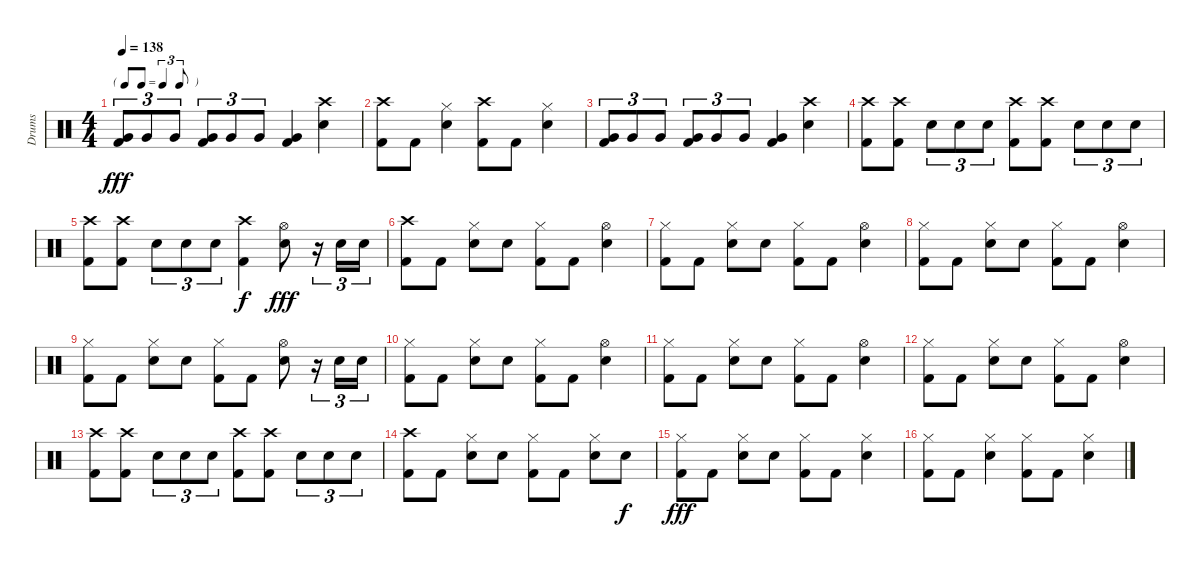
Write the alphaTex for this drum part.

\track ("Drums" "Drums") {instrument percussion}
\staff {score}
\articulation defaults
\ts (4 4)
\tf triplet8th
\tempo 138
\clef neutral
\ks c
("Very Low Tom (hit)" "Kick (hit) 2").8{tu (3 2) dy fff} "Very Low Tom (hit)".8{tu (3 2)} "Very Low Tom (hit)".8{tu (3 2)} ("Very Low Tom (hit)" "Kick (hit) 2").8{tu (3 2)} "Very Low Tom (hit)".8{tu (3 2)} "Very Low Tom (hit)".8{tu (3 2)} ("Very Low Tom (hit)" "Kick (hit) 2").4 ("Crash high (hit)" "Snare (hit) 2").4 |
("Crash high (hit)" "Kick (hit) 2").8 "Kick (hit) 2".8 ("Hi-Hat (closed)" "Snare (hit) 2").4 ("Crash high (hit)" "Kick (hit) 2").8 "Kick (hit) 2".8 ("Hi-Hat (closed)" "Snare (hit) 2").4 |
("Very Low Tom (hit)" "Kick (hit) 2").8{tu (3 2)} "Very Low Tom (hit)".8{tu (3 2)} "Very Low Tom (hit)".8{tu (3 2)} ("Very Low Tom (hit)" "Kick (hit) 2").8{tu (3 2)} "Very Low Tom (hit)".8{tu (3 2)} "Very Low Tom (hit)".8{tu (3 2)} ("Very Low Tom (hit)" "Kick (hit) 2").4 ("Crash high (hit)" "Snare (hit) 2").4 |
("Crash high (hit)" "Kick (hit) 2").8 ("Crash high (hit)" "Kick (hit) 2").8 "Snare (hit) 2".8{tu (3 2)} "Snare (hit) 2".8{tu (3 2)} "Snare (hit) 2".8{tu (3 2)} ("Crash high (hit)" "Kick (hit) 2").8 ("Crash high (hit)" "Kick (hit) 2").8 "Snare (hit) 2".8{tu (3 2)} "Snare (hit) 2".8{tu (3 2)} "Snare (hit) 2".8{tu (3 2)} |
("Crash high (hit)" "Kick (hit) 2").8 ("Crash high (hit)" "Kick (hit) 2").8 "Snare (hit) 2".8{tu (3 2)} "Snare (hit) 2".8{tu (3 2)} "Snare (hit) 2".8{tu (3 2)} ("Crash high (hit)" "Kick (hit) 2").4{dy f} ("Hi-Hat (open)" "Snare (hit) 2").8{dy fff} r.16{tu (3 2)} "Snare (hit) 2".16{tu (3 2)} "Snare (hit) 2".16{tu (3 2)} |
("Crash high (hit)" "Kick (hit) 2").8 "Kick (hit) 2".8 ("Hi-Hat (closed)" "Snare (hit) 2").8 "Snare (hit) 2".8 ("Hi-Hat (closed)" "Kick (hit) 2").8 "Kick (hit) 2".8 ("Hi-Hat (open)" "Snare (hit) 2").4 |
("Hi-Hat (closed)" "Kick (hit) 2").8 "Kick (hit) 2".8 ("Hi-Hat (closed)" "Snare (hit) 2").8 "Snare (hit) 2".8 ("Hi-Hat (closed)" "Kick (hit) 2").8 "Kick (hit) 2".8 ("Hi-Hat (open)" "Snare (hit) 2").4 |
("Hi-Hat (closed)" "Kick (hit) 2").8 "Kick (hit) 2".8 ("Hi-Hat (closed)" "Snare (hit) 2").8 "Snare (hit) 2".8 ("Hi-Hat (closed)" "Kick (hit) 2").8 "Kick (hit) 2".8 ("Hi-Hat (open)" "Snare (hit) 2").4 |
("Hi-Hat (closed)" "Kick (hit) 2").8 "Kick (hit) 2".8 ("Hi-Hat (closed)" "Snare (hit) 2").8 "Snare (hit) 2".8 ("Hi-Hat (closed)" "Kick (hit) 2").8 "Kick (hit) 2".8 ("Hi-Hat (open)" "Snare (hit) 2").8 r.16{tu (3 2)} "Snare (hit) 2".16{tu (3 2)} "Snare (hit) 2".16{tu (3 2)} |
("Hi-Hat (closed)" "Kick (hit) 2").8 "Kick (hit) 2".8 ("Hi-Hat (closed)" "Snare (hit) 2").8 "Snare (hit) 2".8 ("Hi-Hat (closed)" "Kick (hit) 2").8 "Kick (hit) 2".8 ("Hi-Hat (open)" "Snare (hit) 2").4 |
("Hi-Hat (closed)" "Kick (hit) 2").8 "Kick (hit) 2".8 ("Hi-Hat (closed)" "Snare (hit) 2").8 "Snare (hit) 2".8 ("Hi-Hat (closed)" "Kick (hit) 2").8 "Kick (hit) 2".8 ("Hi-Hat (open)" "Snare (hit) 2").4 |
("Hi-Hat (closed)" "Kick (hit) 2").8 "Kick (hit) 2".8 ("Hi-Hat (closed)" "Snare (hit) 2").8 "Snare (hit) 2".8 ("Hi-Hat (closed)" "Kick (hit) 2").8 "Kick (hit) 2".8 ("Hi-Hat (open)" "Snare (hit) 2").4 |
("Crash high (hit)" "Kick (hit) 2").8 ("Crash high (hit)" "Kick (hit) 2").8 "Snare (hit) 2".8{tu (3 2)} "Snare (hit) 2".8{tu (3 2)} "Snare (hit) 2".8{tu (3 2)} ("Crash high (hit)" "Kick (hit) 2").8 ("Crash high (hit)" "Kick (hit) 2").8 "Snare (hit) 2".8{tu (3 2)} "Snare (hit) 2".8{tu (3 2)} "Snare (hit) 2".8{tu (3 2)} |
("Crash high (hit)" "Kick (hit) 2").8 "Kick (hit) 2".8 ("Hi-Hat (closed)" "Snare (hit) 2").8 "Snare (hit) 2".8 ("Hi-Hat (closed)" "Kick (hit) 2").8 "Kick (hit) 2".8 ("Hi-Hat (closed)" "Snare (hit) 2").8 "Snare (hit) 2".8{dy f} |
("Hi-Hat (closed)" "Kick (hit) 2").8{dy fff} "Kick (hit) 2".8 ("Hi-Hat (closed)" "Snare (hit) 2").8 "Snare (hit) 2".8 ("Hi-Hat (closed)" "Kick (hit) 2").8 "Kick (hit) 2".8 ("Hi-Hat (closed)" "Snare (hit) 2").4 |
("Hi-Hat (closed)" "Kick (hit) 2").8 "Kick (hit) 2".8 ("Hi-Hat (closed)" "Snare (hit) 2").4 ("Hi-Hat (closed)" "Kick (hit) 2").8 "Kick (hit) 2".8 ("Hi-Hat (closed)" "Snare (hit) 2").4
